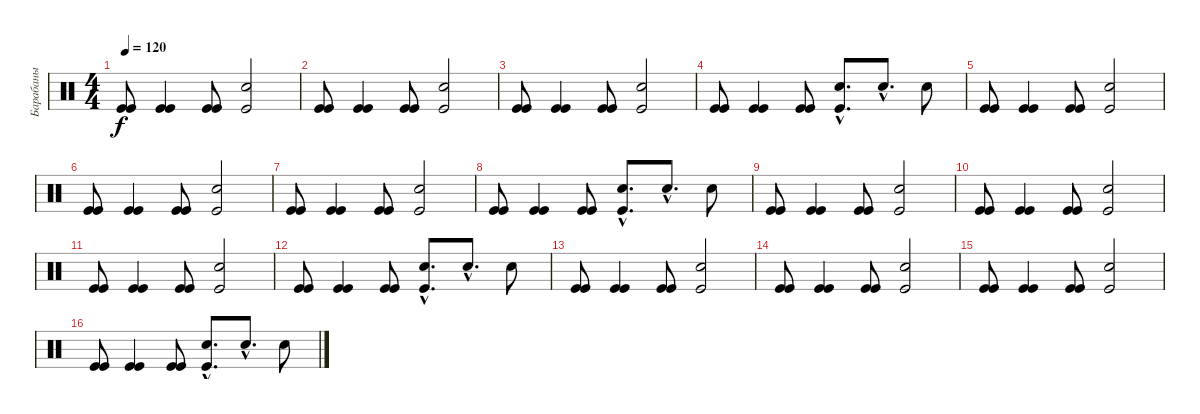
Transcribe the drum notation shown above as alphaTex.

\track ("Барабаны" "Барабаны") {instrument percussion}
\staff {score}
\articulation defaults
\ts (4 4)
\tempo 120
\clef neutral
\ks c
("Kick (hit)" "Kick (hit)").8{dy f volume 13} ("Kick (hit)" "Kick (hit)").4 ("Kick (hit)" "Kick (hit)").8 ("Kick (hit)" "Snare (hit) 2").2 |
("Kick (hit)" "Kick (hit)").8 ("Kick (hit)" "Kick (hit)").4 ("Kick (hit)" "Kick (hit)").8 ("Kick (hit)" "Snare (hit) 2").2 |
("Kick (hit)" "Kick (hit)").8 ("Kick (hit)" "Kick (hit)").4 ("Kick (hit)" "Kick (hit)").8 ("Kick (hit)" "Snare (hit) 2").2 |
("Kick (hit)" "Kick (hit)").8 ("Kick (hit)" "Kick (hit)").4 ("Kick (hit)" "Kick (hit)").8 ("Kick (hit)"{hac} "Snare (hit) 2"{hac}).8{d} "Snare (hit) 2"{hac}.8{d volume 9} "Snare (hit) 2".8{volume 6} |
("Kick (hit)" "Kick (hit)").8{volume 13} ("Kick (hit)" "Kick (hit)").4 ("Kick (hit)" "Kick (hit)").8 ("Kick (hit)" "Snare (hit) 2").2 |
("Kick (hit)" "Kick (hit)").8 ("Kick (hit)" "Kick (hit)").4 ("Kick (hit)" "Kick (hit)").8 ("Kick (hit)" "Snare (hit) 2").2 |
("Kick (hit)" "Kick (hit)").8 ("Kick (hit)" "Kick (hit)").4 ("Kick (hit)" "Kick (hit)").8 ("Kick (hit)" "Snare (hit) 2").2 |
("Kick (hit)" "Kick (hit)").8 ("Kick (hit)" "Kick (hit)").4 ("Kick (hit)" "Kick (hit)").8 ("Kick (hit)"{hac} "Snare (hit) 2"{hac}).8{d} "Snare (hit) 2"{hac}.8{d volume 9} "Snare (hit) 2".8{volume 6} |
("Kick (hit)" "Kick (hit)").8{volume 13} ("Kick (hit)" "Kick (hit)").4 ("Kick (hit)" "Kick (hit)").8 ("Kick (hit)" "Snare (hit) 2").2 |
("Kick (hit)" "Kick (hit)").8 ("Kick (hit)" "Kick (hit)").4 ("Kick (hit)" "Kick (hit)").8 ("Kick (hit)" "Snare (hit) 2").2 |
("Kick (hit)" "Kick (hit)").8 ("Kick (hit)" "Kick (hit)").4 ("Kick (hit)" "Kick (hit)").8 ("Kick (hit)" "Snare (hit) 2").2 |
("Kick (hit)" "Kick (hit)").8 ("Kick (hit)" "Kick (hit)").4 ("Kick (hit)" "Kick (hit)").8 ("Kick (hit)"{hac} "Snare (hit) 2"{hac}).8{d} "Snare (hit) 2"{hac}.8{d volume 9} "Snare (hit) 2".8{volume 6} |
("Kick (hit)" "Kick (hit)").8{volume 13} ("Kick (hit)" "Kick (hit)").4 ("Kick (hit)" "Kick (hit)").8 ("Kick (hit)" "Snare (hit) 2").2 |
("Kick (hit)" "Kick (hit)").8 ("Kick (hit)" "Kick (hit)").4 ("Kick (hit)" "Kick (hit)").8 ("Kick (hit)" "Snare (hit) 2").2 |
("Kick (hit)" "Kick (hit)").8 ("Kick (hit)" "Kick (hit)").4 ("Kick (hit)" "Kick (hit)").8 ("Kick (hit)" "Snare (hit) 2").2 |
("Kick (hit)" "Kick (hit)").8 ("Kick (hit)" "Kick (hit)").4 ("Kick (hit)" "Kick (hit)").8 ("Kick (hit)"{hac} "Snare (hit) 2"{hac}).8{d} "Snare (hit) 2"{hac}.8{d volume 9} "Snare (hit) 2".8{volume 6}
